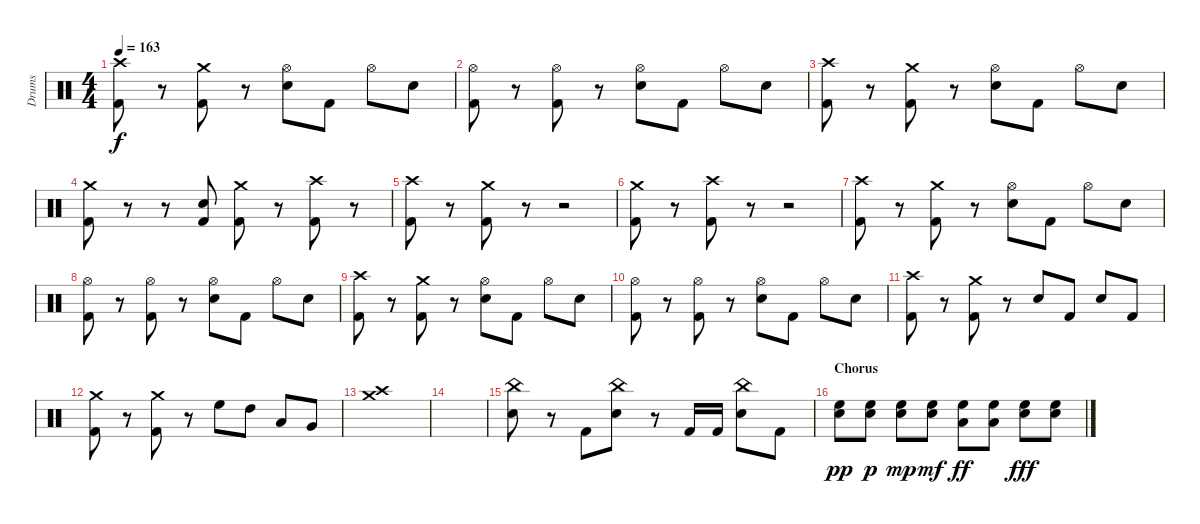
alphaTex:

\track ("Drums" "Drums") {instrument percussion}
\staff {score}
\articulation defaults
\ts (4 4)
\tempo 163
\clef neutral
\ks c
("Crash high (hit)" "Kick (hit) 2").8{dy f} r.8 ("Crash medium (hit)" "Kick (hit) 2").8 r.8 ("Hi-Hat (open)" "Snare (hit) 2").8 "Kick (hit) 2".8 "Hi-Hat (open)".8 "Snare (hit) 2".8 |
("Hi-Hat (open)" "Kick (hit) 2").8 r.8 ("Hi-Hat (open)" "Kick (hit) 2").8 r.8 ("Hi-Hat (open)" "Snare (hit) 2").8 "Kick (hit) 2".8 "Hi-Hat (open)".8 "Snare (hit) 2".8 |
("Crash high (hit)" "Kick (hit) 2").8 r.8 ("Crash medium (hit)" "Kick (hit) 2").8 r.8 ("Hi-Hat (open)" "Snare (hit) 2").8 "Kick (hit) 2".8 "Hi-Hat (open)".8 "Snare (hit) 2".8 |
("Crash medium (hit)" "Kick (hit) 2").8 r.8 r.8 ("Snare (hit) 2" "Kick (hit) 2").8 ("Crash medium (hit)" "Kick (hit) 2").8 r.8 ("Crash high (hit)" "Kick (hit) 2").8 r.8 |
("Crash high (hit)" "Kick (hit) 2").8 r.8 ("Crash medium (hit)" "Kick (hit) 2").8 r.8 r.2 |
("Crash medium (hit)" "Kick (hit) 2").8 r.8 ("Crash high (hit)" "Kick (hit) 2").8 r.8 r.2 |
("Crash high (hit)" "Kick (hit) 2").8 r.8 ("Crash medium (hit)" "Kick (hit) 2").8 r.8 ("Hi-Hat (open)" "Snare (hit) 2").8 "Kick (hit) 2".8 "Hi-Hat (open)".8 "Snare (hit) 2".8 |
("Hi-Hat (open)" "Kick (hit) 2").8 r.8 ("Hi-Hat (open)" "Kick (hit) 2").8 r.8 ("Hi-Hat (open)" "Snare (hit) 2").8 "Kick (hit) 2".8 "Hi-Hat (open)".8 "Snare (hit) 2".8 |
("Crash high (hit)" "Kick (hit) 2").8 r.8 ("Crash medium (hit)" "Kick (hit) 2").8 r.8 ("Hi-Hat (open)" "Snare (hit) 2").8 "Kick (hit) 2".8 "Hi-Hat (open)".8 "Snare (hit) 2".8 |
("Hi-Hat (open)" "Kick (hit) 2").8 r.8 ("Hi-Hat (open)" "Kick (hit) 2").8 r.8 ("Hi-Hat (open)" "Snare (hit) 2").8 "Kick (hit) 2".8 "Hi-Hat (open)".8 "Snare (hit) 2".8 |
("Crash high (hit)" "Kick (hit) 2").8 r.8 ("Crash medium (hit)" "Kick (hit) 2").8 r.8 "Snare (hit) 2".8 "Kick (hit) 2".8 "Snare (hit) 2".8 "Kick (hit) 2".8 |
("Crash medium (hit)" "Kick (hit) 2").8 r.8 ("Crash medium (hit)" "Kick (hit) 2").8 r.8 "High Floor Tom (hit)".8 "High Tom (hit)".8 "Low Tom (hit)".8 "Very Low Tom (hit)".8 |
("Crash high (hit)" "Crash medium (hit)").1 |
|
("China (hit)" "Snare (hit) 2").8 r.8 "Kick (hit) 2".8 ("China (hit)" "Snare (hit) 2").8 r.8 "Kick (hit) 2".16 "Kick (hit) 2".16 ("China (hit)" "Snare (hit) 2").8 "Kick (hit) 2".8 |
\section ("" "Chorus")
("High Floor Tom (hit)" "Snare (hit) 2").8{dy pp} ("High Floor Tom (hit)" "Snare (hit) 2").8{dy p} ("High Floor Tom (hit)" "Snare (hit) 2").8{dy mp} ("High Floor Tom (hit)" "Snare (hit) 2").8{dy mf} ("High Floor Tom (hit)" "Low Tom (hit)").8{dy ff} ("High Floor Tom (hit)" "Low Tom (hit)").8 ("High Floor Tom (hit)" "Snare (hit) 2").8{dy fff} ("High Floor Tom (hit)" "Snare (hit) 2").8
